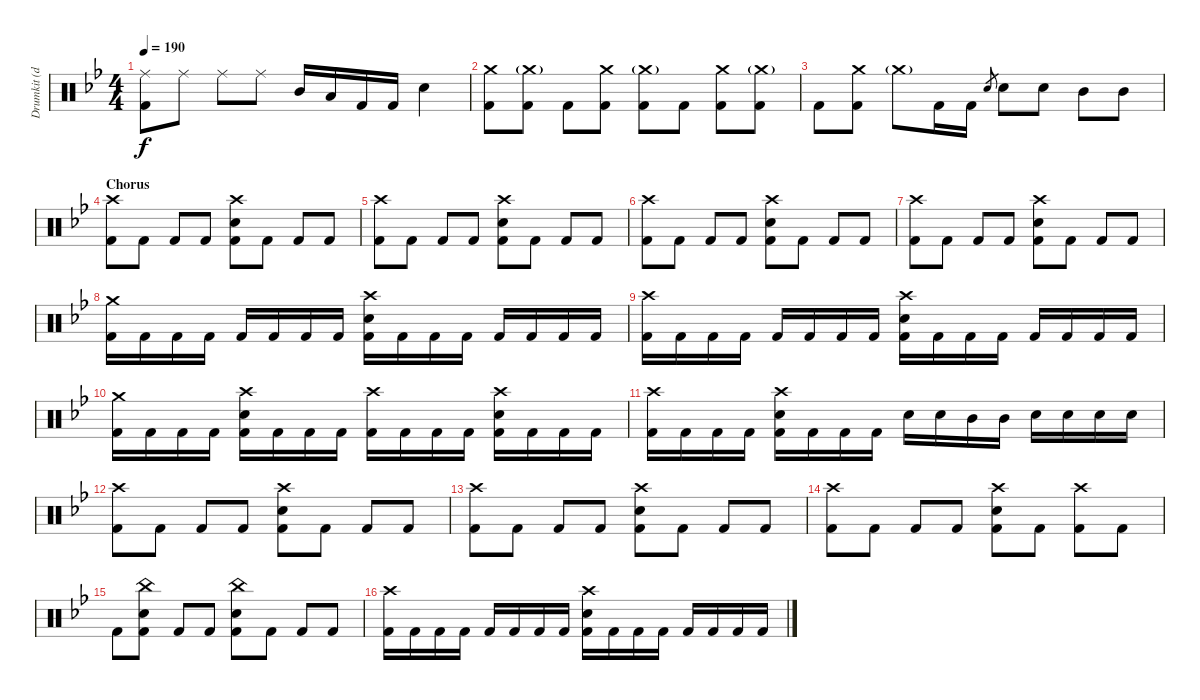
\track ("Drumkit (don't unmute)" "Drumkit (d") {instrument percussion}
\staff {score}
\articulation defaults
\ts (4 4)
\tempo 190
\clef neutral
\ks bb
("Kick (hit) 2" "Ride (middle)").8{dy f} "Ride (middle)".8 "Ride (middle)".8 "Ride (middle)".8 "Mid Tom (hit)".16 "Low Tom (hit)".16 "Kick (hit) 2".16 "Kick (hit) 2".16 "Snare (hit) 2".4 |
("Kick (hit) 2" "Crash medium (hit)").8 ("Kick (hit) 2" "Crash medium (hit)"{g}).8 "Kick (hit) 2".8 ("Kick (hit) 2" "Crash medium (hit)").8 ("Kick (hit) 2" "Crash medium (hit)"{g}).8 "Kick (hit) 2".8 ("Kick (hit) 2" "Crash medium (hit)").8 ("Kick (hit) 2" "Crash medium (hit)"{g}).8 |
"Kick (hit) 2".8 ("Kick (hit) 2" "Crash medium (hit)").8 "Crash medium (hit)"{g}.8 "Kick (hit) 2".16 "Kick (hit) 2".16 "Snare (hit)".8{gr} "Snare (hit) 2".8 "Snare (hit) 2".8 "Mid Tom (hit)".8 "Mid Tom (hit)".8 |
\section ("" "Chorus")
("Kick (hit) 2" "Crash high (hit)").8 "Kick (hit) 2".8 "Kick (hit) 2".8 "Kick (hit) 2".8 ("Kick (hit) 2" "Crash high (hit)" "Snare (hit) 2").8 "Kick (hit) 2".8 "Kick (hit) 2".8 "Kick (hit) 2".8 |
("Kick (hit) 2" "Crash high (hit)").8 "Kick (hit) 2".8 "Kick (hit) 2".8 "Kick (hit) 2".8 ("Kick (hit) 2" "Crash high (hit)" "Snare (hit) 2").8 "Kick (hit) 2".8 "Kick (hit) 2".8 "Kick (hit) 2".8 |
("Kick (hit) 2" "Crash high (hit)").8 "Kick (hit) 2".8 "Kick (hit) 2".8 "Kick (hit) 2".8 ("Kick (hit) 2" "Crash high (hit)" "Snare (hit) 2").8 "Kick (hit) 2".8 "Kick (hit) 2".8 "Kick (hit) 2".8 |
("Kick (hit) 2" "Crash high (hit)").8 "Kick (hit) 2".8 "Kick (hit) 2".8 "Kick (hit) 2".8 ("Kick (hit) 2" "Crash high (hit)" "Snare (hit) 2").8 "Kick (hit) 2".8 "Kick (hit) 2".8 "Kick (hit) 2".8 |
("Kick (hit) 2" "Crash medium (hit)").16 "Kick (hit) 2".16 "Kick (hit) 2".16 "Kick (hit) 2".16 "Kick (hit) 2".16 "Kick (hit) 2".16 "Kick (hit) 2".16 "Kick (hit) 2".16 ("Kick (hit) 2" "Crash high (hit)" "Snare (hit) 2").16 "Kick (hit) 2".16 "Kick (hit) 2".16 "Kick (hit) 2".16 "Kick (hit) 2".16 "Kick (hit) 2".16 "Kick (hit) 2".16 "Kick (hit) 2".16 |
("Kick (hit) 2" "Crash high (hit)").16 "Kick (hit) 2".16 "Kick (hit) 2".16 "Kick (hit) 2".16 "Kick (hit) 2".16 "Kick (hit) 2".16 "Kick (hit) 2".16 "Kick (hit) 2".16 ("Kick (hit) 2" "Crash high (hit)" "Snare (hit) 2").16 "Kick (hit) 2".16 "Kick (hit) 2".16 "Kick (hit) 2".16 "Kick (hit) 2".16 "Kick (hit) 2".16 "Kick (hit) 2".16 "Kick (hit) 2".16 |
("Kick (hit) 2" "Crash medium (hit)").16 "Kick (hit) 2".16 "Kick (hit) 2".16 "Kick (hit) 2".16 ("Kick (hit) 2" "Snare (hit) 2" "Crash high (hit)").16 "Kick (hit) 2".16 "Kick (hit) 2".16 "Kick (hit) 2".16 ("Kick (hit) 2" "Crash high (hit)").16 "Kick (hit) 2".16 "Kick (hit) 2".16 "Kick (hit) 2".16 ("Kick (hit) 2" "Snare (hit) 2" "Crash high (hit)").16 "Kick (hit) 2".16 "Kick (hit) 2".16 "Kick (hit) 2".16 |
("Kick (hit) 2" "Crash high (hit)").16 "Kick (hit) 2".16 "Kick (hit) 2".16 "Kick (hit) 2".16 ("Kick (hit) 2" "Snare (hit) 2" "Crash high (hit)").16 "Kick (hit) 2".16 "Kick (hit) 2".16 "Kick (hit) 2".16 "Snare (hit) 2".16 "Snare (hit) 2".16 "Mid Tom (hit)".16 "Mid Tom (hit)".16 "Snare (hit) 2".16 "Snare (hit) 2".16 "Snare (hit) 2".16 "Snare (hit) 2".16 |
("Kick (hit) 2" "Crash high (hit)").8 "Kick (hit) 2".8 "Kick (hit) 2".8 "Kick (hit) 2".8 ("Kick (hit) 2" "Crash high (hit)" "Snare (hit) 2").8 "Kick (hit) 2".8 "Kick (hit) 2".8 "Kick (hit) 2".8 |
("Kick (hit) 2" "Crash high (hit)").8 "Kick (hit) 2".8 "Kick (hit) 2".8 "Kick (hit) 2".8 ("Kick (hit) 2" "Crash high (hit)" "Snare (hit) 2").8 "Kick (hit) 2".8 "Kick (hit) 2".8 "Kick (hit) 2".8 |
("Kick (hit) 2" "Crash high (hit)").8 "Kick (hit) 2".8 "Kick (hit) 2".8 "Kick (hit) 2".8 ("Kick (hit) 2" "Crash high (hit)" "Snare (hit) 2").8 "Kick (hit) 2".8 ("Kick (hit) 2" "Crash high (hit)").8 "Kick (hit) 2".8 |
"Kick (hit) 2".8 ("Kick (hit) 2" "Snare (hit) 2" "China (hit)").8 "Kick (hit) 2".8 "Kick (hit) 2".8 ("Kick (hit) 2" "Snare (hit) 2" "China (hit)").8 "Kick (hit) 2".8 "Kick (hit) 2".8 "Kick (hit) 2".8 |
("Kick (hit) 2" "Crash high (hit)").16 "Kick (hit) 2".16 "Kick (hit) 2".16 "Kick (hit) 2".16 "Kick (hit) 2".16 "Kick (hit) 2".16 "Kick (hit) 2".16 "Kick (hit) 2".16 ("Kick (hit) 2" "Crash high (hit)" "Snare (hit) 2").16 "Kick (hit) 2".16 "Kick (hit) 2".16 "Kick (hit) 2".16 "Kick (hit) 2".16 "Kick (hit) 2".16 "Kick (hit) 2".16 "Kick (hit) 2".16
